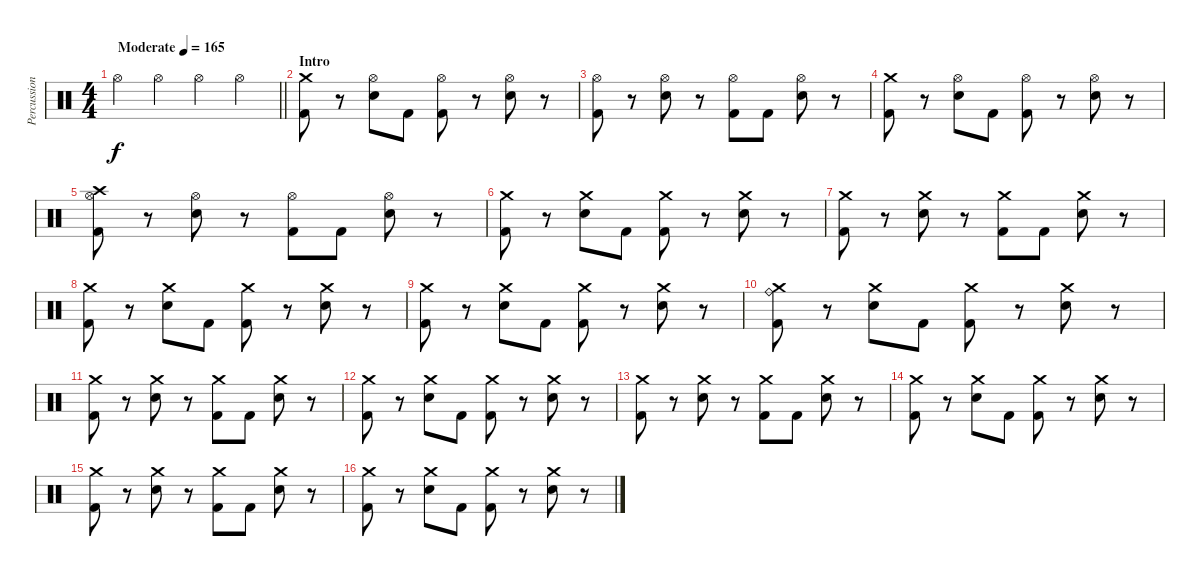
\track ("Percussion" "Percussion") {instrument percussion}
\staff {score}
\articulation defaults
\ts (4 4)
\tempo (165 "Moderate")
\clef neutral
\barLineRight lightlight
\ks c "Hi-Hat (open)".4{dy f} "Hi-Hat (open)".4 "Hi-Hat (open)".4 "Hi-Hat (open)".4
|
\section ("" "Intro")
("Crash medium (hit)" "Kick (hit) 2").8 r.8 ("Hi-Hat (open)" "Electric Snare (hit)").8 "Kick (hit) 2".8 ("Hi-Hat (open)" "Kick (hit) 2").8 r.8 ("Hi-Hat (open)" "Electric Snare (hit)").8 r.8 |
("Hi-Hat (open)" "Kick (hit) 2").8 r.8 ("Hi-Hat (open)" "Electric Snare (hit)").8 r.8 ("Hi-Hat (open)" "Kick (hit) 2").8 "Kick (hit) 2".8 ("Hi-Hat (open)" "Electric Snare (hit)").8 r.8 |
("Crash medium (hit)" "Kick (hit) 2").8 r.8 ("Hi-Hat (open)" "Electric Snare (hit)").8 "Kick (hit) 2".8 ("Hi-Hat (open)" "Kick (hit) 2").8 r.8 ("Hi-Hat (open)" "Electric Snare (hit)").8 r.8 |
("Crash high (hit)" "Hi-Hat (open)" "Kick (hit) 2").8 r.8 ("Hi-Hat (open)" "Electric Snare (hit)").8 r.8 ("Hi-Hat (open)" "Kick (hit) 2").8 "Kick (hit) 2".8 ("Hi-Hat (open)" "Electric Snare (hit)").8 r.8 |
("Crash medium (hit)" "Kick (hit) 2").8 r.8 ("Crash medium (hit)" "Electric Snare (hit)").8 "Kick (hit) 2".8 ("Crash medium (hit)" "Kick (hit) 2").8 r.8 ("Crash medium (hit)" "Electric Snare (hit)").8 r.8 |
("Crash medium (hit)" "Kick (hit) 2").8 r.8 ("Crash medium (hit)" "Electric Snare (hit)").8 r.8 ("Crash medium (hit)" "Kick (hit) 2").8 "Kick (hit) 2".8 ("Crash medium (hit)" "Electric Snare (hit)").8 r.8 |
("Crash medium (hit)" "Kick (hit) 2").8 r.8 ("Crash medium (hit)" "Electric Snare (hit)").8 "Kick (hit) 2".8 ("Crash medium (hit)" "Kick (hit) 2").8 r.8 ("Crash medium (hit)" "Electric Snare (hit)").8 r.8 |
("Crash medium (hit)" "Kick (hit) 2").8 r.8 ("Crash medium (hit)" "Electric Snare (hit)").8 "Kick (hit) 2".8 ("Crash medium (hit)" "Kick (hit) 2").8 r.8 ("Crash medium (hit)" "Electric Snare (hit)").8 r.8 |
("Crash medium (hit)" "Ride (bell)" "Kick (hit) 2").8 r.8 ("Crash medium (hit)" "Electric Snare (hit)").8 "Kick (hit) 2".8 ("Crash medium (hit)" "Kick (hit) 2").8 r.8 ("Crash medium (hit)" "Electric Snare (hit)").8 r.8 |
("Crash medium (hit)" "Kick (hit) 2").8 r.8 ("Crash medium (hit)" "Electric Snare (hit)").8 r.8 ("Crash medium (hit)" "Kick (hit) 2").8 "Kick (hit) 2".8 ("Crash medium (hit)" "Electric Snare (hit)").8 r.8 |
("Crash medium (hit)" "Kick (hit) 2").8 r.8 ("Crash medium (hit)" "Electric Snare (hit)").8 "Kick (hit) 2".8 ("Crash medium (hit)" "Kick (hit) 2").8 r.8 ("Crash medium (hit)" "Electric Snare (hit)").8 r.8 |
("Crash medium (hit)" "Kick (hit) 2").8 r.8 ("Crash medium (hit)" "Electric Snare (hit)").8 r.8 ("Crash medium (hit)" "Kick (hit) 2").8 "Kick (hit) 2".8 ("Crash medium (hit)" "Electric Snare (hit)").8 r.8 |
("Crash medium (hit)" "Kick (hit) 2").8 r.8 ("Crash medium (hit)" "Electric Snare (hit)").8 "Kick (hit) 2".8 ("Crash medium (hit)" "Kick (hit) 2").8 r.8 ("Crash medium (hit)" "Electric Snare (hit)").8 r.8 |
("Crash medium (hit)" "Kick (hit) 2").8 r.8 ("Crash medium (hit)" "Electric Snare (hit)").8 r.8 ("Crash medium (hit)" "Kick (hit) 2").8 "Kick (hit) 2".8 ("Crash medium (hit)" "Electric Snare (hit)").8 r.8 |
("Crash medium (hit)" "Kick (hit) 2").8 r.8 ("Crash medium (hit)" "Electric Snare (hit)").8 "Kick (hit) 2".8 ("Crash medium (hit)" "Kick (hit) 2").8 r.8 ("Crash medium (hit)" "Electric Snare (hit)").8 r.8
